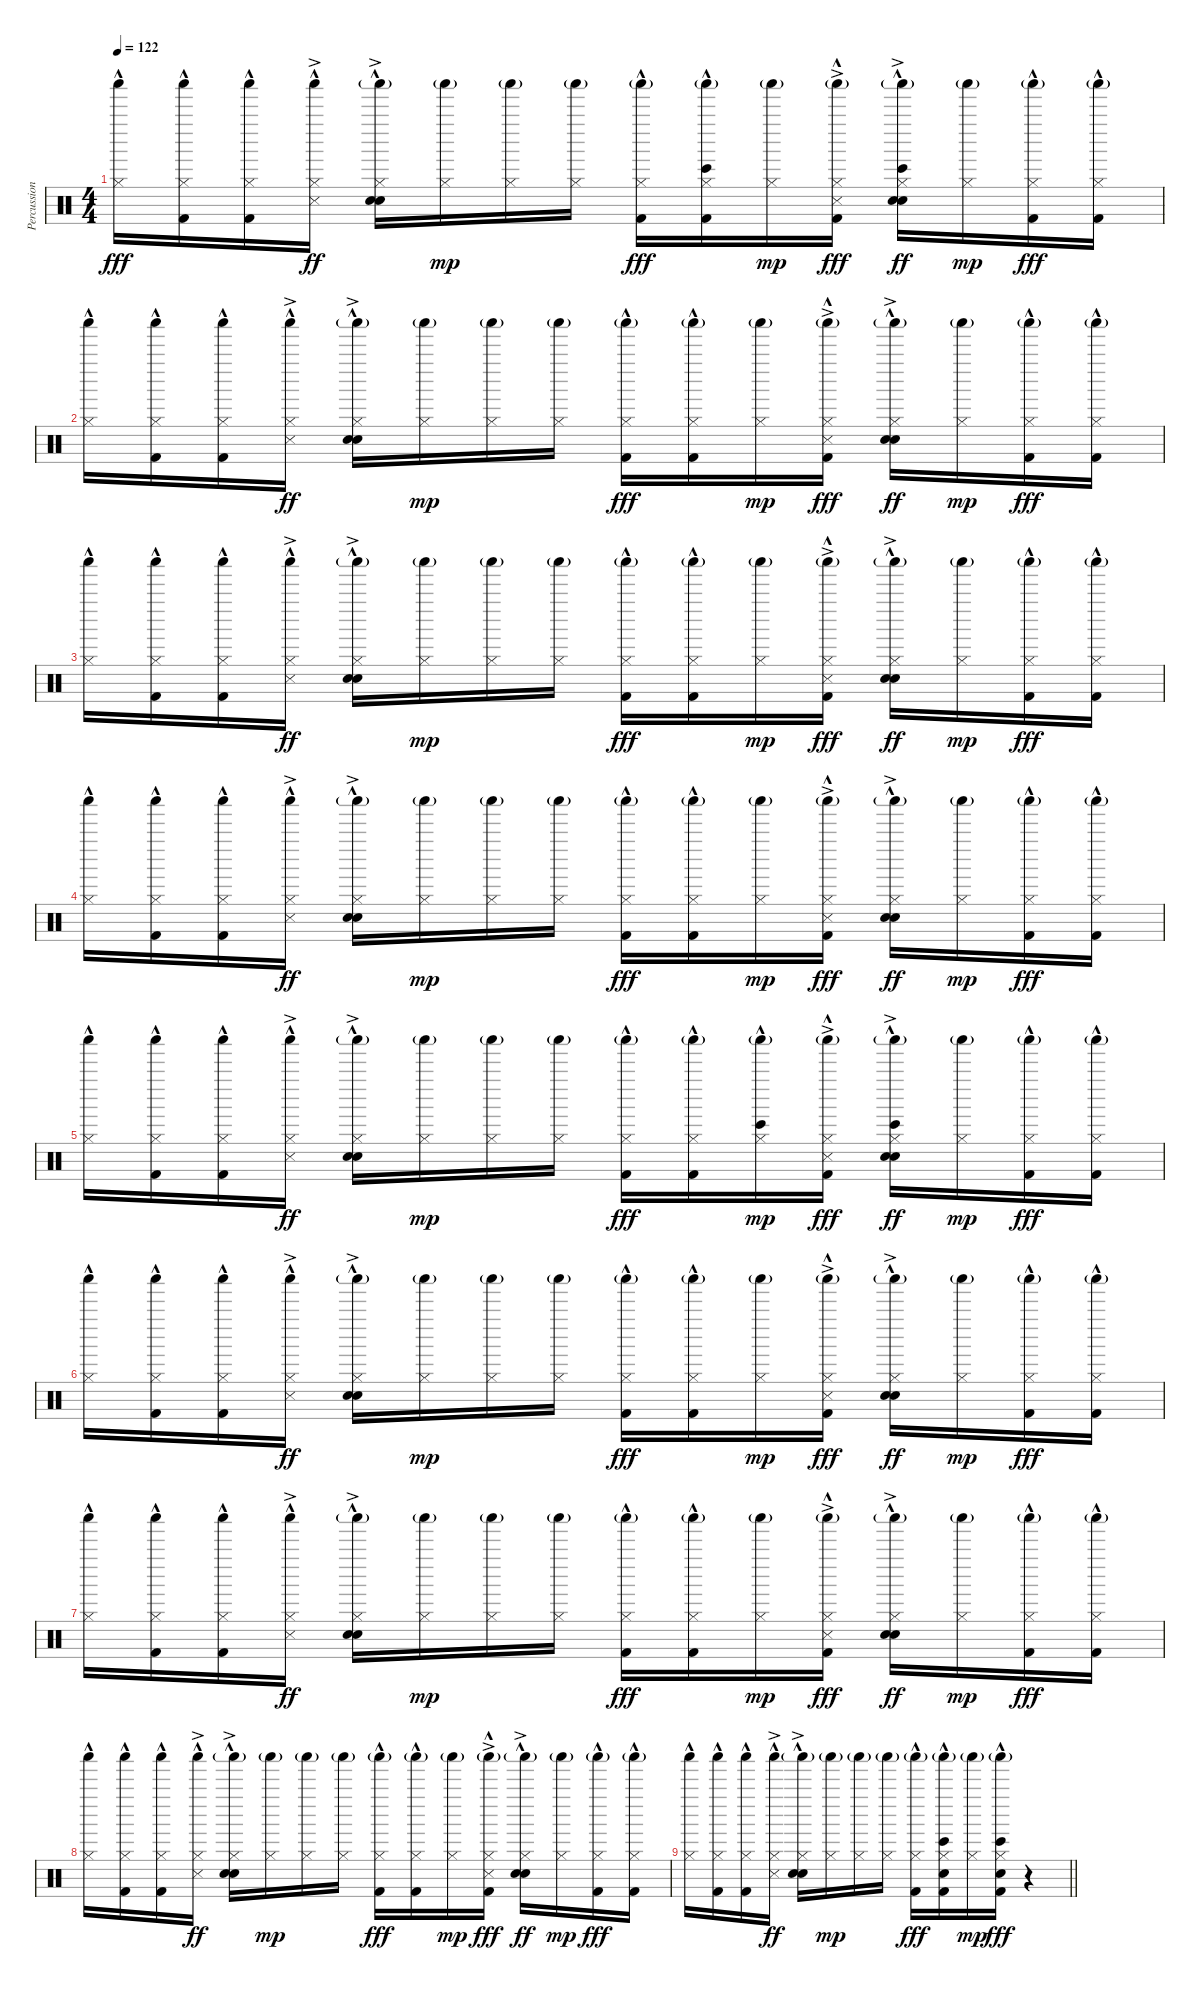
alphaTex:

\track ("Percussion" "Percussion") {instrument percussion}
\staff {score}
\articulation defaults
\ts (4 4)
\tempo 122
\clef neutral
\ks c
("Shaker (hit)" "Hi-Hat (closed)"{hac}).16{dy fff} ("Shaker (hit)" "Hi-Hat (closed)"{hac} "Kick (hit) 2"{hac}).16 ("Shaker (hit)" "Hi-Hat (closed)"{hac} "Kick (hit) 2"{hac}).16 ("Shaker (hit)" "Hi-Hat (closed)"{hac} "Snare (side stick) 3"{ac}).16{dy ff} ("Shaker (hit)"{g} "Hi-Hat (closed)" "Hand Clap (hit)"{hac} "Snare (hit) 2"{ac}).16 ("Shaker (hit)"{g} "Hi-Hat (closed)").16{dy mp} ("Shaker (hit)"{g} "Hi-Hat (closed)").16 ("Shaker (hit)"{g} "Hi-Hat (closed)").16 ("Shaker (hit)"{g} "Hi-Hat (closed)" "Kick (hit) 2"{hac}).16{dy fff} ("Bongo High (hit)"{hac} "Shaker (hit)"{g} "Hi-Hat (closed)" "Kick (hit) 2"{hac}).16 ("Shaker (hit)"{g} "Hi-Hat (closed)").16{dy mp} ("Shaker (hit)"{g} "Hi-Hat (closed)" "Snare (side stick) 3"{ac} "Kick (hit) 2"{hac}).16{dy fff} ("Bongo High (hit)"{hac} "Shaker (hit)"{g} "Hi-Hat (closed)" "Hand Clap (hit)"{hac} "Snare (hit) 2"{ac}).16{dy ff} ("Shaker (hit)"{g} "Hi-Hat (closed)").16{dy mp} ("Shaker (hit)"{g} "Hi-Hat (closed)" "Kick (hit) 2"{hac}).16{dy fff} ("Shaker (hit)"{g} "Hi-Hat (closed)" "Kick (hit) 2"{hac}).16 |
("Shaker (hit)" "Hi-Hat (closed)"{hac}).16 ("Shaker (hit)" "Hi-Hat (closed)"{hac} "Kick (hit) 2"{hac}).16 ("Shaker (hit)" "Hi-Hat (closed)"{hac} "Kick (hit) 2"{hac}).16 ("Shaker (hit)" "Hi-Hat (closed)"{hac} "Snare (side stick) 3"{ac}).16{dy ff} ("Shaker (hit)"{g} "Hi-Hat (closed)" "Hand Clap (hit)"{hac} "Snare (hit) 2"{ac}).16 ("Shaker (hit)"{g} "Hi-Hat (closed)").16{dy mp} ("Shaker (hit)"{g} "Hi-Hat (closed)").16 ("Shaker (hit)"{g} "Hi-Hat (closed)").16 ("Shaker (hit)"{g} "Hi-Hat (closed)" "Kick (hit) 2"{hac}).16{dy fff} ("Shaker (hit)"{g} "Hi-Hat (closed)" "Kick (hit) 2"{hac}).16 ("Shaker (hit)"{g} "Hi-Hat (closed)").16{dy mp} ("Shaker (hit)"{g} "Hi-Hat (closed)" "Snare (side stick) 3"{ac} "Kick (hit) 2"{hac}).16{dy fff} ("Shaker (hit)"{g} "Hi-Hat (closed)" "Hand Clap (hit)"{hac} "Snare (hit) 2"{ac}).16{dy ff} ("Shaker (hit)"{g} "Hi-Hat (closed)").16{dy mp} ("Shaker (hit)"{g} "Hi-Hat (closed)" "Kick (hit) 2"{hac}).16{dy fff} ("Shaker (hit)"{g} "Hi-Hat (closed)" "Kick (hit) 2"{hac}).16 |
("Shaker (hit)" "Hi-Hat (closed)"{hac}).16 ("Shaker (hit)" "Hi-Hat (closed)"{hac} "Kick (hit) 2"{hac}).16 ("Shaker (hit)" "Hi-Hat (closed)"{hac} "Kick (hit) 2"{hac}).16 ("Shaker (hit)" "Hi-Hat (closed)"{hac} "Snare (side stick) 3"{ac}).16{dy ff} ("Shaker (hit)"{g} "Hi-Hat (closed)" "Hand Clap (hit)"{hac} "Snare (hit) 2"{ac}).16 ("Shaker (hit)"{g} "Hi-Hat (closed)").16{dy mp} ("Shaker (hit)"{g} "Hi-Hat (closed)").16 ("Shaker (hit)"{g} "Hi-Hat (closed)").16 ("Shaker (hit)"{g} "Hi-Hat (closed)" "Kick (hit) 2"{hac}).16{dy fff} ("Shaker (hit)"{g} "Hi-Hat (closed)" "Kick (hit) 2"{hac}).16 ("Shaker (hit)"{g} "Hi-Hat (closed)").16{dy mp} ("Shaker (hit)"{g} "Hi-Hat (closed)" "Snare (side stick) 3"{ac} "Kick (hit) 2"{hac}).16{dy fff} ("Shaker (hit)"{g} "Hi-Hat (closed)" "Hand Clap (hit)"{hac} "Snare (hit) 2"{ac}).16{dy ff} ("Shaker (hit)"{g} "Hi-Hat (closed)").16{dy mp} ("Shaker (hit)"{g} "Hi-Hat (closed)" "Kick (hit) 2"{hac}).16{dy fff} ("Shaker (hit)"{g} "Hi-Hat (closed)" "Kick (hit) 2"{hac}).16 |
("Shaker (hit)" "Hi-Hat (closed)"{hac}).16 ("Shaker (hit)" "Hi-Hat (closed)"{hac} "Kick (hit) 2"{hac}).16 ("Shaker (hit)" "Hi-Hat (closed)"{hac} "Kick (hit) 2"{hac}).16 ("Shaker (hit)" "Hi-Hat (closed)"{hac} "Snare (side stick) 3"{ac}).16{dy ff} ("Shaker (hit)"{g} "Hi-Hat (closed)" "Hand Clap (hit)"{hac} "Snare (hit) 2"{ac}).16 ("Shaker (hit)"{g} "Hi-Hat (closed)").16{dy mp} ("Shaker (hit)"{g} "Hi-Hat (closed)").16 ("Shaker (hit)"{g} "Hi-Hat (closed)").16 ("Shaker (hit)"{g} "Hi-Hat (closed)" "Kick (hit) 2"{hac}).16{dy fff} ("Shaker (hit)"{g} "Hi-Hat (closed)" "Kick (hit) 2"{hac}).16 ("Shaker (hit)"{g} "Hi-Hat (closed)").16{dy mp} ("Shaker (hit)"{g} "Hi-Hat (closed)" "Snare (side stick) 3"{ac} "Kick (hit) 2"{hac}).16{dy fff} ("Shaker (hit)"{g} "Hi-Hat (closed)" "Hand Clap (hit)"{hac} "Snare (hit) 2"{ac}).16{dy ff} ("Shaker (hit)"{g} "Hi-Hat (closed)").16{dy mp} ("Shaker (hit)"{g} "Hi-Hat (closed)" "Kick (hit) 2"{hac}).16{dy fff} ("Shaker (hit)"{g} "Hi-Hat (closed)" "Kick (hit) 2"{hac}).16 |
("Shaker (hit)" "Hi-Hat (closed)"{hac}).16 ("Shaker (hit)" "Hi-Hat (closed)"{hac} "Kick (hit) 2"{hac}).16 ("Shaker (hit)" "Hi-Hat (closed)"{hac} "Kick (hit) 2"{hac}).16 ("Shaker (hit)" "Hi-Hat (closed)"{hac} "Snare (side stick) 3"{ac}).16{dy ff} ("Shaker (hit)"{g} "Hi-Hat (closed)" "Hand Clap (hit)"{hac} "Snare (hit) 2"{ac}).16 ("Shaker (hit)"{g} "Hi-Hat (closed)").16{dy mp} ("Shaker (hit)"{g} "Hi-Hat (closed)").16 ("Shaker (hit)"{g} "Hi-Hat (closed)").16 ("Shaker (hit)"{g} "Hi-Hat (closed)" "Kick (hit) 2"{hac}).16{dy fff} ("Shaker (hit)"{g} "Hi-Hat (closed)" "Kick (hit) 2"{hac}).16 ("Bongo High (hit)"{hac} "Shaker (hit)"{g} "Hi-Hat (closed)").16{dy mp} ("Shaker (hit)"{g} "Hi-Hat (closed)" "Snare (side stick) 3"{ac} "Kick (hit) 2"{hac}).16{dy fff} ("Bongo High (hit)"{hac} "Shaker (hit)"{g} "Hi-Hat (closed)" "Hand Clap (hit)"{hac} "Snare (hit) 2"{ac}).16{dy ff} ("Shaker (hit)"{g} "Hi-Hat (closed)").16{dy mp} ("Shaker (hit)"{g} "Hi-Hat (closed)" "Kick (hit) 2"{hac}).16{dy fff} ("Shaker (hit)"{g} "Hi-Hat (closed)" "Kick (hit) 2"{hac}).16 |
("Shaker (hit)" "Hi-Hat (closed)"{hac}).16 ("Shaker (hit)" "Hi-Hat (closed)"{hac} "Kick (hit) 2"{hac}).16 ("Shaker (hit)" "Hi-Hat (closed)"{hac} "Kick (hit) 2"{hac}).16 ("Shaker (hit)" "Hi-Hat (closed)"{hac} "Snare (side stick) 3"{ac}).16{dy ff} ("Shaker (hit)"{g} "Hi-Hat (closed)" "Hand Clap (hit)"{hac} "Snare (hit) 2"{ac}).16 ("Shaker (hit)"{g} "Hi-Hat (closed)").16{dy mp} ("Shaker (hit)"{g} "Hi-Hat (closed)").16 ("Shaker (hit)"{g} "Hi-Hat (closed)").16 ("Shaker (hit)"{g} "Hi-Hat (closed)" "Kick (hit) 2"{hac}).16{dy fff} ("Shaker (hit)"{g} "Hi-Hat (closed)" "Kick (hit) 2"{hac}).16 ("Shaker (hit)"{g} "Hi-Hat (closed)").16{dy mp} ("Shaker (hit)"{g} "Hi-Hat (closed)" "Snare (side stick) 3"{ac} "Kick (hit) 2"{hac}).16{dy fff} ("Shaker (hit)"{g} "Hi-Hat (closed)" "Hand Clap (hit)"{hac} "Snare (hit) 2"{ac}).16{dy ff} ("Shaker (hit)"{g} "Hi-Hat (closed)").16{dy mp} ("Shaker (hit)"{g} "Hi-Hat (closed)" "Kick (hit) 2"{hac}).16{dy fff} ("Shaker (hit)"{g} "Hi-Hat (closed)" "Kick (hit) 2"{hac}).16 |
("Shaker (hit)" "Hi-Hat (closed)"{hac}).16 ("Shaker (hit)" "Hi-Hat (closed)"{hac} "Kick (hit) 2"{hac}).16 ("Shaker (hit)" "Hi-Hat (closed)"{hac} "Kick (hit) 2"{hac}).16 ("Shaker (hit)" "Hi-Hat (closed)"{hac} "Snare (side stick) 3"{ac}).16{dy ff} ("Shaker (hit)"{g} "Hi-Hat (closed)" "Hand Clap (hit)"{hac} "Snare (hit) 2"{ac}).16 ("Shaker (hit)"{g} "Hi-Hat (closed)").16{dy mp} ("Shaker (hit)"{g} "Hi-Hat (closed)").16 ("Shaker (hit)"{g} "Hi-Hat (closed)").16 ("Shaker (hit)"{g} "Hi-Hat (closed)" "Kick (hit) 2"{hac}).16{dy fff} ("Shaker (hit)"{g} "Hi-Hat (closed)" "Kick (hit) 2"{hac}).16 ("Shaker (hit)"{g} "Hi-Hat (closed)").16{dy mp} ("Shaker (hit)"{g} "Hi-Hat (closed)" "Snare (side stick) 3"{ac} "Kick (hit) 2"{hac}).16{dy fff} ("Shaker (hit)"{g} "Hi-Hat (closed)" "Hand Clap (hit)"{hac} "Snare (hit) 2"{ac}).16{dy ff} ("Shaker (hit)"{g} "Hi-Hat (closed)").16{dy mp} ("Shaker (hit)"{g} "Hi-Hat (closed)" "Kick (hit) 2"{hac}).16{dy fff} ("Shaker (hit)"{g} "Hi-Hat (closed)" "Kick (hit) 2"{hac}).16 |
("Shaker (hit)" "Hi-Hat (closed)"{hac}).16 ("Shaker (hit)" "Hi-Hat (closed)"{hac} "Kick (hit) 2"{hac}).16 ("Shaker (hit)" "Hi-Hat (closed)"{hac} "Kick (hit) 2"{hac}).16 ("Shaker (hit)" "Hi-Hat (closed)"{hac} "Snare (side stick) 3"{ac}).16{dy ff} ("Shaker (hit)"{g} "Hi-Hat (closed)" "Hand Clap (hit)"{hac} "Snare (hit) 2"{ac}).16 ("Shaker (hit)"{g} "Hi-Hat (closed)").16{dy mp} ("Shaker (hit)"{g} "Hi-Hat (closed)").16 ("Shaker (hit)"{g} "Hi-Hat (closed)").16 ("Shaker (hit)"{g} "Hi-Hat (closed)" "Kick (hit) 2"{hac}).16{dy fff} ("Shaker (hit)"{g} "Hi-Hat (closed)" "Kick (hit) 2"{hac}).16 ("Shaker (hit)"{g} "Hi-Hat (closed)").16{dy mp} ("Shaker (hit)"{g} "Hi-Hat (closed)" "Snare (side stick) 3"{ac} "Kick (hit) 2"{hac}).16{dy fff} ("Shaker (hit)"{g} "Hi-Hat (closed)" "Hand Clap (hit)"{hac} "Snare (hit) 2"{ac}).16{dy ff} ("Shaker (hit)"{g} "Hi-Hat (closed)").16{dy mp} ("Shaker (hit)"{g} "Hi-Hat (closed)" "Kick (hit) 2"{hac}).16{dy fff} ("Shaker (hit)"{g} "Hi-Hat (closed)" "Kick (hit) 2"{hac}).16 |
\barLineRight lightlight
("Shaker (hit)" "Hi-Hat (closed)"{hac}).16 ("Shaker (hit)" "Hi-Hat (closed)"{hac} "Kick (hit) 2"{hac}).16 ("Shaker (hit)" "Hi-Hat (closed)"{hac} "Kick (hit) 2"{hac}).16 ("Shaker (hit)" "Hi-Hat (closed)"{hac} "Snare (side stick) 3"{ac}).16{dy ff} ("Shaker (hit)"{g} "Hi-Hat (closed)" "Hand Clap (hit)"{hac} "Snare (hit) 2"{ac}).16 ("Shaker (hit)"{g} "Hi-Hat (closed)").16{dy mp} ("Shaker (hit)"{g} "Hi-Hat (closed)").16 ("Shaker (hit)"{g} "Hi-Hat (closed)").16 ("Shaker (hit)"{g} "Hi-Hat (closed)" "Kick (hit) 2"{hac}).16{dy fff} ("Bongo High (hit)"{hac} "Shaker (hit)"{g} "Hi-Hat (closed)" "Hand Clap (hit)"{hac} "Kick (hit) 2"{hac}).16 ("Shaker (hit)"{g} "Hi-Hat (closed)").16{dy mp} ("Bongo High (hit)"{hac} "Shaker (hit)"{g} "Hi-Hat (closed)" "Hand Clap (hit)"{hac} "Kick (hit) 2"{hac}).16{dy fff} r.4
